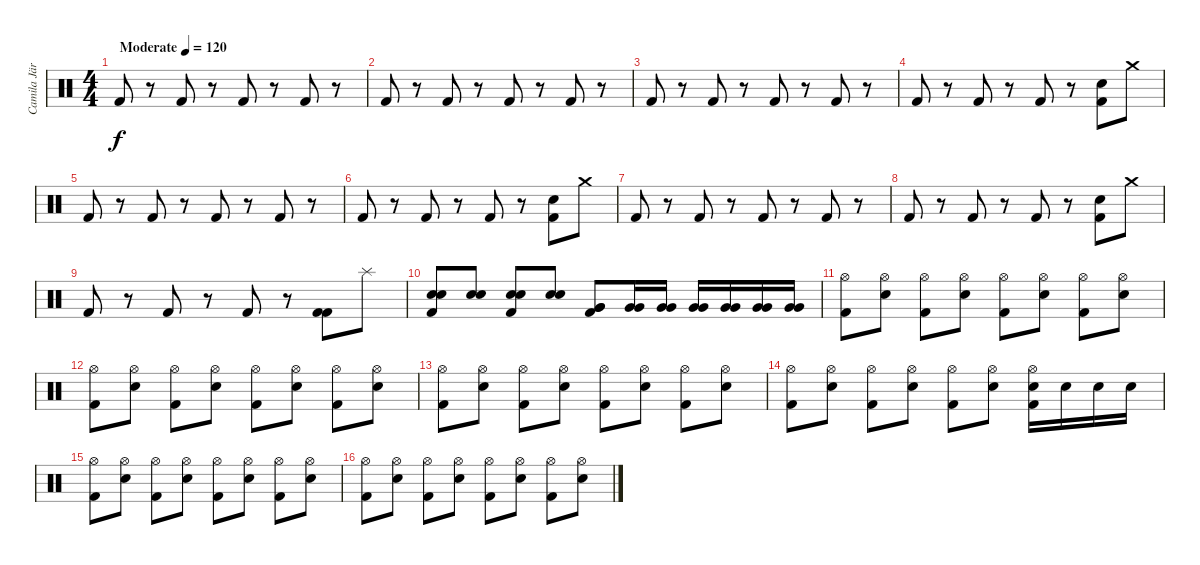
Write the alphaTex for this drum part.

\track ("Camila Jära" "Camila Jär") {instrument percussion}
\staff {score}
\articulation defaults
\ts (4 4)
\tempo (120 "Moderate")
\clef neutral
\ks c "Kick (hit) 2".8{dy f}
r.8 "Kick (hit) 2".8 r.8 "Kick (hit) 2".8 r.8 "Kick (hit) 2".8 r.8 |
"Kick (hit) 2".8 r.8 "Kick (hit) 2".8 r.8 "Kick (hit) 2".8 r.8 "Kick (hit) 2".8 r.8 |
"Kick (hit) 2".8 r.8 "Kick (hit) 2".8 r.8 "Kick (hit) 2".8 r.8 "Kick (hit) 2".8 r.8 |
"Kick (hit) 2".8 r.8 "Kick (hit) 2".8 r.8 "Kick (hit) 2".8 r.8 ("Snare (hit) 2" "Kick (hit) 2").8 "Crash medium (hit)".8 |
"Kick (hit) 2".8 r.8 "Kick (hit) 2".8 r.8 "Kick (hit) 2".8 r.8 "Kick (hit) 2".8 r.8 |
"Kick (hit) 2".8 r.8 "Kick (hit) 2".8 r.8 "Kick (hit) 2".8 r.8 ("Snare (hit) 2" "Kick (hit) 2").8 "Crash medium (hit)".8 |
"Kick (hit) 2".8 r.8 "Kick (hit) 2".8 r.8 "Kick (hit) 2".8 r.8 "Kick (hit) 2".8 r.8 |
"Kick (hit) 2".8 r.8 "Kick (hit) 2".8 r.8 "Kick (hit) 2".8 r.8 ("Snare (hit) 2" "Kick (hit) 2").8 "Crash medium (hit)".8 |
"Kick (hit) 2".8 r.8 "Kick (hit) 2".8 r.8 "Kick (hit) 2".8 r.8 ("Kick (hit) 2" "Kick (hit) 2").8 "Splash (hit)".8 |
("Snare (hit) 2" "Snare (hit) 2" "Kick (hit) 2").8 ("Snare (hit) 2" "Snare (hit) 2").8 ("Snare (hit) 2" "Snare (hit) 2" "Kick (hit) 2").8 ("Snare (hit) 2" "Snare (hit) 2").8 ("Very Low Tom (hit)" "Very Low Tom (hit)" "Kick (hit) 2").8 ("Very Low Tom (hit)" "Very Low Tom (hit)").16 ("Very Low Tom (hit)" "Very Low Tom (hit)").16 ("Very Low Tom (hit)" "Very Low Tom (hit)").16 ("Very Low Tom (hit)" "Very Low Tom (hit)").16 ("Very Low Tom (hit)" "Very Low Tom (hit)").16 ("Very Low Tom (hit)" "Very Low Tom (hit)").16 |
("Hi-Hat (open)" "Kick (hit) 2").8 ("Hi-Hat (open)" "Snare (hit) 2").8 ("Hi-Hat (open)" "Kick (hit) 2").8 ("Hi-Hat (open)" "Snare (hit) 2").8 ("Hi-Hat (open)" "Kick (hit) 2").8 ("Hi-Hat (open)" "Snare (hit) 2").8 ("Hi-Hat (open)" "Kick (hit) 2").8 ("Hi-Hat (open)" "Snare (hit) 2").8 |
("Hi-Hat (open)" "Kick (hit) 2").8 ("Hi-Hat (open)" "Snare (hit) 2").8 ("Hi-Hat (open)" "Kick (hit) 2").8 ("Hi-Hat (open)" "Snare (hit) 2").8 ("Hi-Hat (open)" "Kick (hit) 2").8 ("Hi-Hat (open)" "Snare (hit) 2").8 ("Hi-Hat (open)" "Kick (hit) 2").8 ("Hi-Hat (open)" "Snare (hit) 2").8 |
("Hi-Hat (open)" "Kick (hit) 2").8 ("Hi-Hat (open)" "Snare (hit) 2").8 ("Hi-Hat (open)" "Kick (hit) 2").8 ("Hi-Hat (open)" "Snare (hit) 2").8 ("Hi-Hat (open)" "Kick (hit) 2").8 ("Hi-Hat (open)" "Snare (hit) 2").8 ("Hi-Hat (open)" "Kick (hit) 2").8 ("Hi-Hat (open)" "Snare (hit) 2").8 |
("Hi-Hat (open)" "Kick (hit) 2").8 ("Hi-Hat (open)" "Snare (hit) 2").8 ("Hi-Hat (open)" "Kick (hit) 2").8 ("Hi-Hat (open)" "Snare (hit) 2").8 ("Hi-Hat (open)" "Kick (hit) 2").8 ("Hi-Hat (open)" "Snare (hit) 2").8 ("Hi-Hat (open)" "Snare (hit) 2" "Kick (hit) 2").16 "Snare (hit) 2".16 "Snare (hit) 2".16 "Snare (hit) 2".16 |
("Hi-Hat (open)" "Kick (hit) 2").8 ("Hi-Hat (open)" "Snare (hit) 2").8 ("Hi-Hat (open)" "Kick (hit) 2").8 ("Hi-Hat (open)" "Snare (hit) 2").8 ("Hi-Hat (open)" "Kick (hit) 2").8 ("Hi-Hat (open)" "Snare (hit) 2").8 ("Hi-Hat (open)" "Kick (hit) 2").8 ("Hi-Hat (open)" "Snare (hit) 2").8 |
("Hi-Hat (open)" "Kick (hit) 2").8 ("Hi-Hat (open)" "Snare (hit) 2").8 ("Hi-Hat (open)" "Kick (hit) 2").8 ("Hi-Hat (open)" "Snare (hit) 2").8 ("Hi-Hat (open)" "Kick (hit) 2").8 ("Hi-Hat (open)" "Snare (hit) 2").8 ("Hi-Hat (open)" "Kick (hit) 2").8 ("Hi-Hat (open)" "Snare (hit) 2").8
